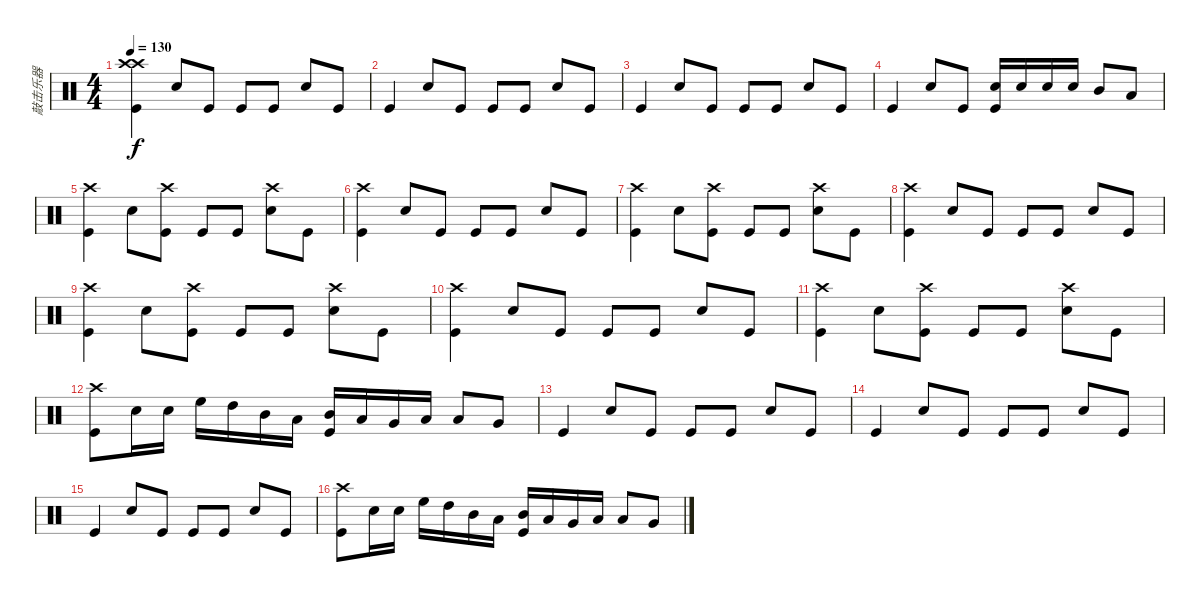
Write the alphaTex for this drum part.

\track ("敲击乐器" "敲击乐器") {instrument percussion}
\staff {score}
\articulation defaults
\ts (4 4)
\tempo 130
\clef neutral
\ks c
("Crash high (hit)" "Crash high (hit)" "Kick (hit)").4{dy f} "Snare (hit) 2".8 "Kick (hit)".8 "Kick (hit)".8 "Kick (hit)".8 "Snare (hit) 2".8 "Kick (hit)".8 |
"Kick (hit)".4 "Snare (hit) 2".8 "Kick (hit)".8 "Kick (hit)".8 "Kick (hit)".8 "Snare (hit) 2".8 "Kick (hit)".8 |
"Kick (hit)".4 "Snare (hit) 2".8 "Kick (hit)".8 "Kick (hit)".8 "Kick (hit)".8 "Snare (hit) 2".8 "Kick (hit)".8 |
"Kick (hit)".4 "Snare (hit) 2".8 "Kick (hit)".8 ("Snare (hit) 2" "Kick (hit)").16 "Snare (hit) 2".16 "Snare (hit) 2".16 "Snare (hit) 2".16 "Mid Tom (hit)".8 "Low Tom (hit)".8 |
("Crash high (hit)" "Kick (hit)").4 "Snare (hit) 2".8 ("Crash high (hit)" "Kick (hit)").8 "Kick (hit)".8 "Kick (hit)".8 ("Crash high (hit)" "Snare (hit) 2").8 "Kick (hit)".8 |
("Crash high (hit)" "Kick (hit)").4 "Snare (hit) 2".8 "Kick (hit)".8 "Kick (hit)".8 "Kick (hit)".8 "Snare (hit) 2".8 "Kick (hit)".8 |
("Crash high (hit)" "Kick (hit)").4 "Snare (hit) 2".8 ("Crash high (hit)" "Kick (hit)").8 "Kick (hit)".8 "Kick (hit)".8 ("Crash high (hit)" "Snare (hit) 2").8 "Kick (hit)".8 |
("Crash high (hit)" "Kick (hit)").4 "Snare (hit) 2".8 "Kick (hit)".8 "Kick (hit)".8 "Kick (hit)".8 "Snare (hit) 2".8 "Kick (hit)".8 |
("Crash high (hit)" "Kick (hit)").4 "Snare (hit) 2".8 ("Crash high (hit)" "Kick (hit)").8 "Kick (hit)".8 "Kick (hit)".8 ("Crash high (hit)" "Snare (hit) 2").8 "Kick (hit)".8 |
("Crash high (hit)" "Kick (hit)").4 "Snare (hit) 2".8 "Kick (hit)".8 "Kick (hit)".8 "Kick (hit)".8 "Snare (hit) 2".8 "Kick (hit)".8 |
("Crash high (hit)" "Kick (hit)").4 "Snare (hit) 2".8 ("Crash high (hit)" "Kick (hit)").8 "Kick (hit)".8 "Kick (hit)".8 ("Crash high (hit)" "Snare (hit) 2").8 "Kick (hit)".8 |
("Crash high (hit)" "Kick (hit)").8 "Snare (hit) 2".16 "Snare (hit) 2".16 "High Floor Tom (hit)".16 "High Tom (hit)".16 "Mid Tom (hit)".16 "Low Tom (hit)".16 ("Mid Tom (hit)" "Kick (hit)").16 "Low Tom (hit)".16 "Very Low Tom (hit)".16 "Low Floor Tom (hit)".16 "Low Tom (hit)".8 "Very Low Tom (hit)".8 |
"Kick (hit)".4 "Snare (hit) 2".8 "Kick (hit)".8 "Kick (hit)".8 "Kick (hit)".8 "Snare (hit) 2".8 "Kick (hit)".8 |
"Kick (hit)".4 "Snare (hit) 2".8 "Kick (hit)".8 "Kick (hit)".8 "Kick (hit)".8 "Snare (hit) 2".8 "Kick (hit)".8 |
"Kick (hit)".4 "Snare (hit) 2".8 "Kick (hit)".8 "Kick (hit)".8 "Kick (hit)".8 "Snare (hit) 2".8 "Kick (hit)".8 |
("Crash high (hit)" "Kick (hit)").8 "Snare (hit) 2".16 "Snare (hit) 2".16 "High Floor Tom (hit)".16 "High Tom (hit)".16 "Mid Tom (hit)".16 "Low Tom (hit)".16 ("Mid Tom (hit)" "Kick (hit)").16 "Low Tom (hit)".16 "Very Low Tom (hit)".16 "Low Floor Tom (hit)".16 "Low Tom (hit)".8 "Very Low Tom (hit)".8
